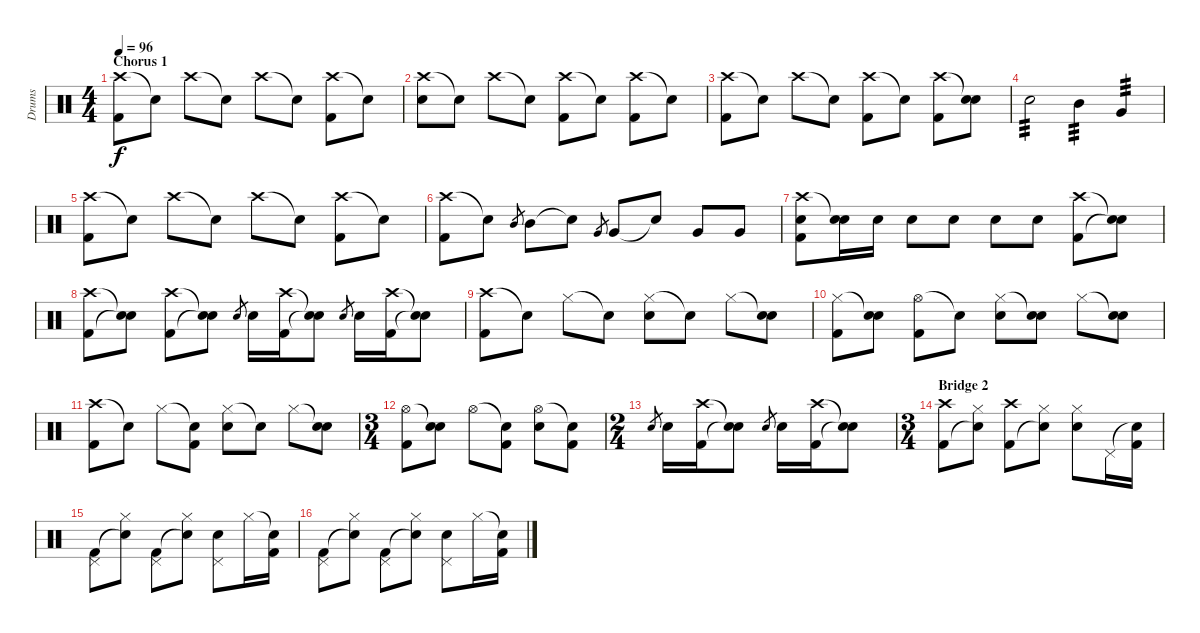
\track ("Drums" "Drums") {instrument percussion}
\staff {score}
\articulation defaults
\ts (4 4)
\section ("" "Chorus 1")
\tempo 96
\clef neutral
\ks c
("Crash high (hit)" "Kick (hit) 2").8{dy f} "Snare (hit)"{t}.8 "Crash high (hit)".8 "Snare (hit)"{t}.8 "Crash high (hit)".8 "Snare (hit)"{t}.8 ("Crash high (hit)" "Kick (hit) 2").8 "Snare (hit)"{t}.8 |
("Crash high (hit)" "Electric Snare (hit)").8 "Snare (hit)"{t}.8 "Crash high (hit)".8 "Snare (hit)"{t}.8 ("Crash high (hit)" "Kick (hit) 2").8 "Snare (hit)"{t}.8 ("Crash high (hit)" "Kick (hit) 2").8 "Snare (hit)"{t}.8 |
("Crash high (hit)" "Kick (hit) 2").8 "Snare (hit)"{t}.8 "Crash high (hit)".8 "Snare (hit)"{t}.8 ("Crash high (hit)" "Kick (hit) 2").8 "Snare (hit)"{t}.8 ("Crash high (hit)" "Kick (hit) 2").8 ("Snare (hit)"{t} "Electric Snare (hit)").8 |
"Electric Snare (hit)".2{tp 3} "Mid Tom (hit)".4{tp 3} "Very Low Tom (hit)".4{tp 3} |
("Crash high (hit)" "Kick (hit) 2").8 "Snare (hit)"{t}.8 "Crash high (hit)".8 "Snare (hit)"{t}.8 "Crash high (hit)".8 "Snare (hit)"{t}.8 ("Crash high (hit)" "Kick (hit) 2").8 "Snare (hit)"{t}.8 |
("Crash high (hit)" "Kick (hit) 2").8 "Snare (hit)"{t}.8 "Mid Tom (hit)".8{gr} "Mid Tom (hit)".8 "Snare (hit)"{t}.8 "Very Low Tom (hit)".8{gr} "Very Low Tom (hit)".8 "Snare (hit)"{t}.8 "Very Low Tom (hit)".8 "Very Low Tom (hit)".8 |
("Crash high (hit)" "Electric Snare (hit)" "Kick (hit) 2").8 ("Snare (hit)"{t} "Electric Snare (hit)").16 "Electric Snare (hit)".16 "Electric Snare (hit)".8 "Electric Snare (hit)".8 "Electric Snare (hit)".8 "Electric Snare (hit)".8 ("Crash high (hit)" "Kick (hit) 2").8 ("Snare (hit)"{t} "Snare (hit)"{t}).8 |
("Crash high (hit)" "Kick (hit) 2").8 ("Snare (hit)"{t} "Snare (hit)"{t}).8 ("Crash high (hit)" "Kick (hit) 2").8 ("Snare (hit)"{t} "Snare (hit)"{t}).8 "Electric Snare (hit)".8{gr} "Electric Snare (hit)".16 ("Crash high (hit)" "Kick (hit) 2").16 ("Snare (hit)"{t} "Snare (hit)"{t}).8 "Electric Snare (hit)".8{gr} "Electric Snare (hit)".16 ("Crash high (hit)" "Kick (hit) 2").16 ("Snare (hit)"{t} "Snare (hit)"{t}).8 |
("Crash high (hit)" "Kick (hit) 2").8 "Snare (hit)"{t}.8 "Hi-Hat (closed)".8 "Snare (hit)"{t}.8 ("Hi-Hat (closed)" "Electric Snare (hit)").8 "Snare (hit)"{t}.8 "Hi-Hat (closed)".8 ("Snare (hit)"{t} "Electric Snare (hit)").8 |
("Hi-Hat (closed)" "Kick (hit) 2").8 ("Snare (hit)"{t} "Electric Snare (hit)").8 ("Hi-Hat (open)" "Kick (hit) 2").8 "Snare (hit)"{t}.8 ("Hi-Hat (closed)" "Electric Snare (hit)").8 ("Snare (hit)"{t} "Electric Snare (hit)").8 "Hi-Hat (closed)".8 ("Snare (hit)"{t} "Electric Snare (hit)").8 |
("Crash high (hit)" "Kick (hit) 2").8 "Snare (hit)"{t}.8 "Hi-Hat (closed)".8 ("Snare (hit)"{t} "Kick (hit) 2").8 ("Hi-Hat (closed)" "Electric Snare (hit)").8 "Snare (hit)"{t}.8 "Hi-Hat (closed)".8 ("Snare (hit)"{t} "Electric Snare (hit)").8 |
\ts (3 4)
("Hi-Hat (open)" "Kick (hit) 2").8 ("Snare (hit)"{t} "Electric Snare (hit)").8 "Hi-Hat (open)".8 ("Snare (hit)"{t} "Kick (hit) 2").8 ("Hi-Hat (open)" "Electric Snare (hit)").8 ("Snare (hit)"{t} "Kick (hit) 2").8 |
\ts (2 4)
"Electric Snare (hit)".8{gr} "Electric Snare (hit)".16 ("Crash high (hit)" "Kick (hit) 2").16 ("Snare (hit)"{t} "Snare (hit)"{t}).8 "Electric Snare (hit)".8{gr} "Electric Snare (hit)".16 ("Crash high (hit)" "Kick (hit) 2").16 ("Snare (hit)"{t} "Snare (hit)"{t}).8 |
\ts (3 4)
\section ("" "Bridge 2")
("Crash high (hit)" "Kick (hit) 2").8 ("Hi-Hat (closed)" "Snare (hit)"{t}).8 ("Crash high (hit)" "Kick (hit) 2").8 ("Hi-Hat (closed)" "Snare (hit)"{t}).8 ("Hi-Hat (closed)" "Electric Snare (hit)").8 "Pedal Hi-Hat (hit)".16 ("Snare (hit)"{t} "Kick (hit) 2").16 |
("Pedal Hi-Hat (hit)" "Kick (hit) 2").8 ("Hi-Hat (closed)" "Snare (hit)"{t}).8 ("Pedal Hi-Hat (hit)" "Kick (hit) 2").8 ("Hi-Hat (closed)" "Snare (hit)"{t}).8 ("Pedal Hi-Hat (hit)" "Electric Snare (hit)").8 "Hi-Hat (closed)".16 ("Snare (hit)"{t} "Kick (hit) 2").16 |
("Pedal Hi-Hat (hit)" "Kick (hit) 2").8 ("Hi-Hat (closed)" "Snare (hit)"{t}).8 ("Pedal Hi-Hat (hit)" "Kick (hit) 2").8 ("Hi-Hat (closed)" "Snare (hit)"{t}).8 ("Pedal Hi-Hat (hit)" "Electric Snare (hit)").8 "Hi-Hat (closed)".16 ("Snare (hit)"{t} "Kick (hit) 2").16
